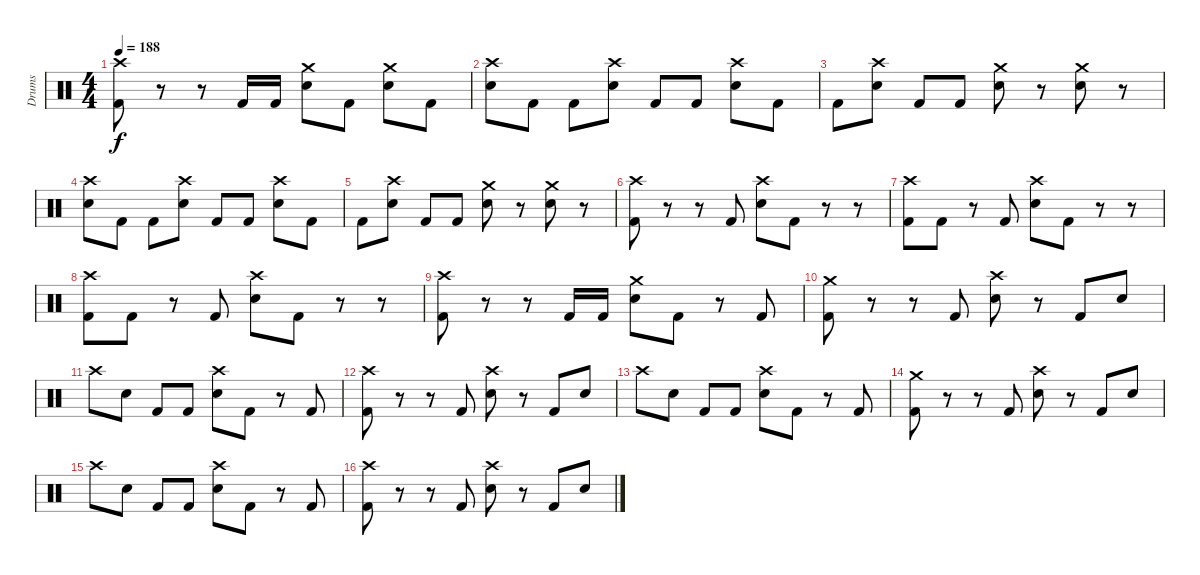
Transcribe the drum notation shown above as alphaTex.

\track ("Drums" "Drums") {instrument percussion}
\staff {score}
\articulation defaults
\ts (4 4)
\tempo 188
\clef neutral
\ks c
("Crash high (hit)" "Kick (hit) 2").8{dy f} r.8 r.8 "Kick (hit) 2".16 "Kick (hit) 2".16 ("Crash medium (hit)" "Electric Snare (hit)").8 "Kick (hit) 2".8 ("Crash medium (hit)" "Electric Snare (hit)").8 "Kick (hit) 2".8 |
("Crash high (hit)" "Electric Snare (hit)").8 "Kick (hit) 2".8 "Kick (hit) 2".8 ("Crash high (hit)" "Electric Snare (hit)").8 "Kick (hit) 2".8 "Kick (hit) 2".8 ("Crash high (hit)" "Electric Snare (hit)").8 "Kick (hit) 2".8 |
"Kick (hit) 2".8 ("Crash high (hit)" "Electric Snare (hit)").8 "Kick (hit) 2".8 "Kick (hit) 2".8 ("Crash medium (hit)" "Electric Snare (hit)").8 r.8 ("Crash medium (hit)" "Electric Snare (hit)").8 r.8 |
("Crash high (hit)" "Electric Snare (hit)").8 "Kick (hit) 2".8 "Kick (hit) 2".8 ("Crash high (hit)" "Electric Snare (hit)").8 "Kick (hit) 2".8 "Kick (hit) 2".8 ("Crash high (hit)" "Electric Snare (hit)").8 "Kick (hit) 2".8 |
"Kick (hit) 2".8 ("Crash high (hit)" "Electric Snare (hit)").8 "Kick (hit) 2".8 "Kick (hit) 2".8 ("Crash medium (hit)" "Electric Snare (hit)").8 r.8 ("Crash medium (hit)" "Electric Snare (hit)").8 r.8 |
("Crash high (hit)" "Kick (hit) 2").8 r.8 r.8 "Kick (hit) 2".8 ("Crash high (hit)" "Electric Snare (hit)").8 "Kick (hit) 2".8 r.8 r.8 |
("Crash high (hit)" "Kick (hit) 2").8 "Kick (hit) 2".8 r.8 "Kick (hit) 2".8 ("Crash high (hit)" "Electric Snare (hit)").8 "Kick (hit) 2".8 r.8 r.8 |
("Crash high (hit)" "Kick (hit) 2").8 "Kick (hit) 2".8 r.8 "Kick (hit) 2".8 ("Crash high (hit)" "Electric Snare (hit)").8 "Kick (hit) 2".8 r.8 r.8 |
("Crash high (hit)" "Kick (hit) 2").8 r.8 r.8 "Kick (hit) 2".16 "Kick (hit) 2".16 ("Crash medium (hit)" "Electric Snare (hit)").8 "Kick (hit) 2".8 r.8 "Kick (hit) 2".8 |
("Crash medium (hit)" "Kick (hit) 2").8 r.8 r.8 "Kick (hit) 2".8 ("Crash high (hit)" "Electric Snare (hit)").8 r.8 "Kick (hit) 2".8 "Electric Snare (hit)".8 |
"Crash high (hit)".8 "Electric Snare (hit)".8 "Kick (hit) 2".8 "Kick (hit) 2".8 ("Crash high (hit)" "Electric Snare (hit)").8 "Kick (hit) 2".8 r.8 "Kick (hit) 2".8 |
("Crash high (hit)" "Kick (hit) 2").8 r.8 r.8 "Kick (hit) 2".8 ("Crash high (hit)" "Electric Snare (hit)").8 r.8 "Kick (hit) 2".8 "Electric Snare (hit)".8 |
"Crash high (hit)".8 "Electric Snare (hit)".8 "Kick (hit) 2".8 "Kick (hit) 2".8 ("Crash high (hit)" "Electric Snare (hit)").8 "Kick (hit) 2".8 r.8 "Kick (hit) 2".8 |
("Crash medium (hit)" "Kick (hit) 2").8 r.8 r.8 "Kick (hit) 2".8 ("Crash high (hit)" "Electric Snare (hit)").8 r.8 "Kick (hit) 2".8 "Electric Snare (hit)".8 |
"Crash high (hit)".8 "Electric Snare (hit)".8 "Kick (hit) 2".8 "Kick (hit) 2".8 ("Crash high (hit)" "Electric Snare (hit)").8 "Kick (hit) 2".8 r.8 "Kick (hit) 2".8 |
("Crash high (hit)" "Kick (hit) 2").8 r.8 r.8 "Kick (hit) 2".8 ("Crash high (hit)" "Electric Snare (hit)").8 r.8 "Kick (hit) 2".8 "Electric Snare (hit)".8
